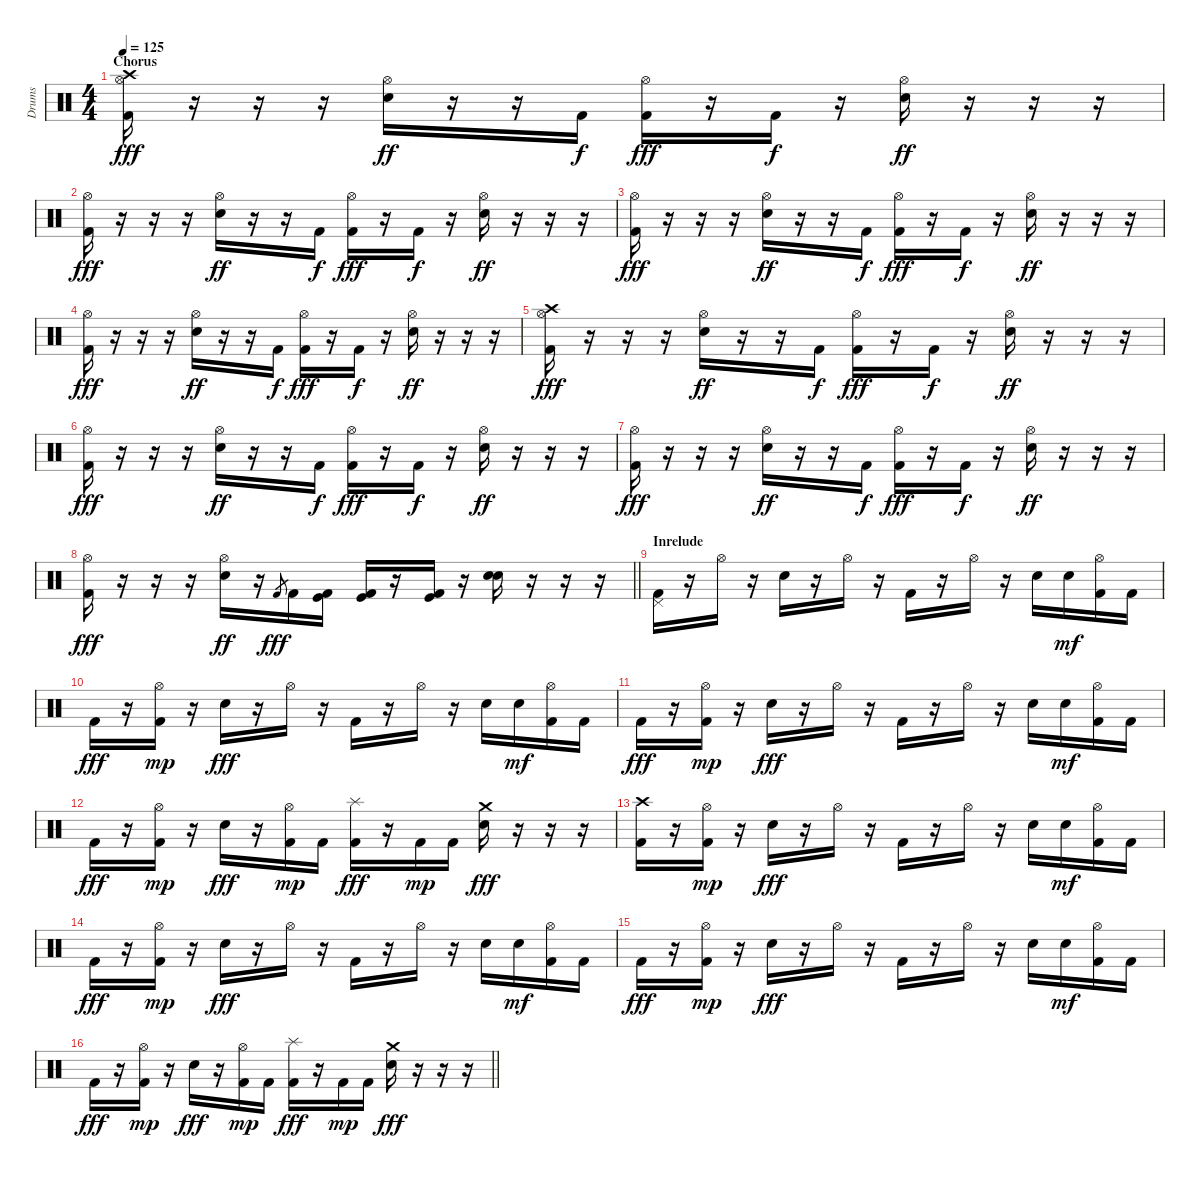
\track ("Drums " "Drums ") {instrument percussion}
\staff {score}
\articulation defaults
\ts (4 4)
\section ("" "Chorus")
\tempo 125
\clef neutral
\ks c
("Crash high (hit)" "Hi-Hat (open)" "Kick (hit) 2").16{dy fff} r.16 r.16 r.16 ("Hi-Hat (open)" "Electric Snare (hit)").16{dy ff} r.16 r.16 "Kick (hit) 2".16{dy f} ("Hi-Hat (open)" "Kick (hit) 2").16{dy fff} r.16 "Kick (hit) 2".16{dy f} r.16 ("Hi-Hat (open)" "Electric Snare (hit)").16{dy ff} r.16 r.16 r.16 |
("Hi-Hat (open)" "Kick (hit) 2").16{dy fff} r.16 r.16 r.16 ("Hi-Hat (open)" "Electric Snare (hit)").16{dy ff} r.16 r.16 "Kick (hit) 2".16{dy f} ("Hi-Hat (open)" "Kick (hit) 2").16{dy fff} r.16 "Kick (hit) 2".16{dy f} r.16 ("Hi-Hat (open)" "Electric Snare (hit)").16{dy ff} r.16 r.16 r.16 |
("Hi-Hat (open)" "Kick (hit) 2").16{dy fff} r.16 r.16 r.16 ("Hi-Hat (open)" "Electric Snare (hit)").16{dy ff} r.16 r.16 "Kick (hit) 2".16{dy f} ("Hi-Hat (open)" "Kick (hit) 2").16{dy fff} r.16 "Kick (hit) 2".16{dy f} r.16 ("Hi-Hat (open)" "Electric Snare (hit)").16{dy ff} r.16 r.16 r.16 |
("Hi-Hat (open)" "Kick (hit) 2").16{dy fff} r.16 r.16 r.16 ("Hi-Hat (open)" "Electric Snare (hit)").16{dy ff} r.16 r.16 "Kick (hit) 2".16{dy f} ("Hi-Hat (open)" "Kick (hit) 2").16{dy fff} r.16 "Kick (hit) 2".16{dy f} r.16 ("Hi-Hat (open)" "Electric Snare (hit)").16{dy ff} r.16 r.16 r.16 |
("Crash high (hit)" "Hi-Hat (open)" "Kick (hit) 2").16{dy fff} r.16 r.16 r.16 ("Hi-Hat (open)" "Electric Snare (hit)").16{dy ff} r.16 r.16 "Kick (hit) 2".16{dy f} ("Hi-Hat (open)" "Kick (hit) 2").16{dy fff} r.16 "Kick (hit) 2".16{dy f} r.16 ("Hi-Hat (open)" "Electric Snare (hit)").16{dy ff} r.16 r.16 r.16 |
("Hi-Hat (open)" "Kick (hit) 2").16{dy fff} r.16 r.16 r.16 ("Hi-Hat (open)" "Electric Snare (hit)").16{dy ff} r.16 r.16 "Kick (hit) 2".16{dy f} ("Hi-Hat (open)" "Kick (hit) 2").16{dy fff} r.16 "Kick (hit) 2".16{dy f} r.16 ("Hi-Hat (open)" "Electric Snare (hit)").16{dy ff} r.16 r.16 r.16 |
("Hi-Hat (open)" "Kick (hit) 2").16{dy fff} r.16 r.16 r.16 ("Hi-Hat (open)" "Electric Snare (hit)").16{dy ff} r.16 r.16 "Kick (hit) 2".16{dy f} ("Hi-Hat (open)" "Kick (hit) 2").16{dy fff} r.16 "Kick (hit) 2".16{dy f} r.16 ("Hi-Hat (open)" "Electric Snare (hit)").16{dy ff} r.16 r.16 r.16 |
\barLineRight lightlight
("Hi-Hat (open)" "Kick (hit) 2").16{dy fff} r.16 r.16 r.16 ("Hi-Hat (open)" "Electric Snare (hit)").16{dy ff} r.16 "Kick (hit) 2".8{gr dy fff} "Kick (hit) 2".16 ("Kick (hit) 2" "Kick (hit)").16 ("Kick (hit) 2" "Kick (hit)").16 r.16 ("Kick (hit) 2" "Kick (hit)").16 r.16 ("Snare (hit)" "Electric Snare (hit)").16 r.16 r.16 r.16 |
\section ("" "Inrelude ")
("Pedal Hi-Hat (hit)" "Kick (hit) 2").16 r.16 "Hi-Hat (open)".16 r.16 "Electric Snare (hit)".16 r.16 "Hi-Hat (open)".16 r.16 "Kick (hit) 2".16 r.16 "Hi-Hat (open)".16 r.16 "Electric Snare (hit)".16 "Electric Snare (hit)".16{dy mf} ("Hi-Hat (open)" "Kick (hit) 2").16 "Kick (hit) 2".16 |
"Kick (hit) 2".16{dy fff} r.16 ("Hi-Hat (open)" "Kick (hit) 2").16{dy mp} r.16 "Electric Snare (hit)".16{dy fff} r.16 "Hi-Hat (open)".16 r.16 "Kick (hit) 2".16 r.16 "Hi-Hat (open)".16 r.16 "Electric Snare (hit)".16 "Electric Snare (hit)".16{dy mf} ("Hi-Hat (open)" "Kick (hit) 2").16 "Kick (hit) 2".16 |
"Kick (hit) 2".16{dy fff} r.16 ("Hi-Hat (open)" "Kick (hit) 2").16{dy mp} r.16 "Electric Snare (hit)".16{dy fff} r.16 "Hi-Hat (open)".16 r.16 "Kick (hit) 2".16 r.16 "Hi-Hat (open)".16 r.16 "Electric Snare (hit)".16 "Electric Snare (hit)".16{dy mf} ("Hi-Hat (open)" "Kick (hit) 2").16 "Kick (hit) 2".16 |
"Kick (hit) 2".16{dy fff} r.16 ("Hi-Hat (open)" "Kick (hit) 2").16{dy mp} r.16 "Electric Snare (hit)".16{dy fff} r.16 ("Hi-Hat (open)" "Kick (hit) 2").16{dy mp} "Kick (hit) 2".16 ("Splash (hit)" "Kick (hit) 2").16{dy fff} r.16 "Kick (hit) 2".16{dy mp} "Kick (hit) 2".16 ("Crash medium (hit)" "Electric Snare (hit)").16{dy fff} r.16 r.16 r.16 |
("Crash high (hit)" "Kick (hit) 2").16 r.16 ("Hi-Hat (open)" "Kick (hit) 2").16{dy mp} r.16 "Electric Snare (hit)".16{dy fff} r.16 "Hi-Hat (open)".16 r.16 "Kick (hit) 2".16 r.16 "Hi-Hat (open)".16 r.16 "Electric Snare (hit)".16 "Electric Snare (hit)".16{dy mf} ("Hi-Hat (open)" "Kick (hit) 2").16 "Kick (hit) 2".16 |
"Kick (hit) 2".16{dy fff} r.16 ("Hi-Hat (open)" "Kick (hit) 2").16{dy mp} r.16 "Electric Snare (hit)".16{dy fff} r.16 "Hi-Hat (open)".16 r.16 "Kick (hit) 2".16 r.16 "Hi-Hat (open)".16 r.16 "Electric Snare (hit)".16 "Electric Snare (hit)".16{dy mf} ("Hi-Hat (open)" "Kick (hit) 2").16 "Kick (hit) 2".16 |
"Kick (hit) 2".16{dy fff} r.16 ("Hi-Hat (open)" "Kick (hit) 2").16{dy mp} r.16 "Electric Snare (hit)".16{dy fff} r.16 "Hi-Hat (open)".16 r.16 "Kick (hit) 2".16 r.16 "Hi-Hat (open)".16 r.16 "Electric Snare (hit)".16 "Electric Snare (hit)".16{dy mf} ("Hi-Hat (open)" "Kick (hit) 2").16 "Kick (hit) 2".16 |
\barLineRight lightlight "Kick (hit) 2".16{dy fff}
r.16 ("Hi-Hat (open)" "Kick (hit) 2").16{dy mp} r.16 "Electric Snare (hit)".16{dy fff} r.16 ("Hi-Hat (open)" "Kick (hit) 2").16{dy mp} "Kick (hit) 2".16 ("Splash (hit)" "Kick (hit) 2").16{dy fff} r.16 "Kick (hit) 2".16{dy mp} "Kick (hit) 2".16 ("Crash medium (hit)" "Electric Snare (hit)").16{dy fff} r.16 r.16 r.16
